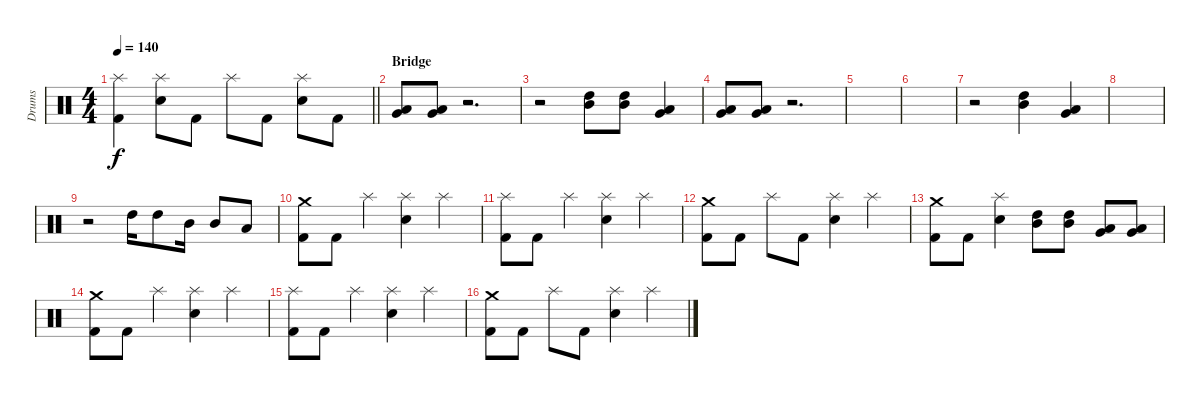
\track ("Drums" "Drums") {instrument percussion}
\staff {score}
\articulation defaults
\ts (4 4)
\tempo 140
\clef neutral
\barLineRight lightlight
\ks c
("Kick (hit) 2" "Splash (hit)").4{dy f} ("Snare (hit) 2" "Splash (hit)").8 "Kick (hit) 2".8 "Splash (hit)".8 "Kick (hit) 2".8 ("Snare (hit) 2" "Splash (hit)").8 "Kick (hit) 2".8 |
\section ("" "Bridge")
("Low Tom (hit)" "Very Low Tom (hit)").8 ("Low Tom (hit)" "Very Low Tom (hit)").8 r.2{d} |
r.2 ("High Tom (hit)" "Mid Tom (hit)").8 ("High Tom (hit)" "Mid Tom (hit)").8 ("Low Tom (hit)" "Very Low Tom (hit)").4 |
("Low Tom (hit)" "Very Low Tom (hit)").8 ("Low Tom (hit)" "Very Low Tom (hit)").8 r.2{d} |
|
|
r.2 ("High Tom (hit)" "Mid Tom (hit)").4 ("Low Tom (hit)" "Very Low Tom (hit)").4 |
|
r.2 "High Tom (hit)".16 "High Tom (hit)".8 "Mid Tom (hit)".16 "Mid Tom (hit)".8 "Low Tom (hit)".8 |
("Kick (hit) 2" "Crash medium (hit)").8 "Kick (hit) 2".8 "Splash (hit)".4 ("Snare (hit) 2" "Splash (hit)").4 "Splash (hit)".4 |
("Kick (hit) 2" "Splash (hit)").8 "Kick (hit) 2".8 "Splash (hit)".4 ("Snare (hit) 2" "Splash (hit)").4 "Splash (hit)".4 |
("Kick (hit) 2" "Crash medium (hit)").8 "Kick (hit) 2".8 "Splash (hit)".8 "Kick (hit) 2".8 ("Snare (hit) 2" "Splash (hit)").4 "Splash (hit)".4 |
("Kick (hit) 2" "Crash medium (hit)").8 "Kick (hit) 2".8 ("Snare (hit) 2" "Splash (hit)").4 ("High Tom (hit)" "Mid Tom (hit)").8 ("High Tom (hit)" "Mid Tom (hit)").8 ("Low Tom (hit)" "Very Low Tom (hit)").8 ("Low Tom (hit)" "Very Low Tom (hit)").8 |
("Kick (hit) 2" "Crash medium (hit)").8 "Kick (hit) 2".8 "Splash (hit)".4 ("Snare (hit) 2" "Splash (hit)").4 "Splash (hit)".4 |
("Kick (hit) 2" "Splash (hit)").8 "Kick (hit) 2".8 "Splash (hit)".4 ("Snare (hit) 2" "Splash (hit)").4 "Splash (hit)".4 |
("Kick (hit) 2" "Crash medium (hit)").8 "Kick (hit) 2".8 "Splash (hit)".8 "Kick (hit) 2".8 ("Snare (hit) 2" "Splash (hit)").4 "Splash (hit)".4
